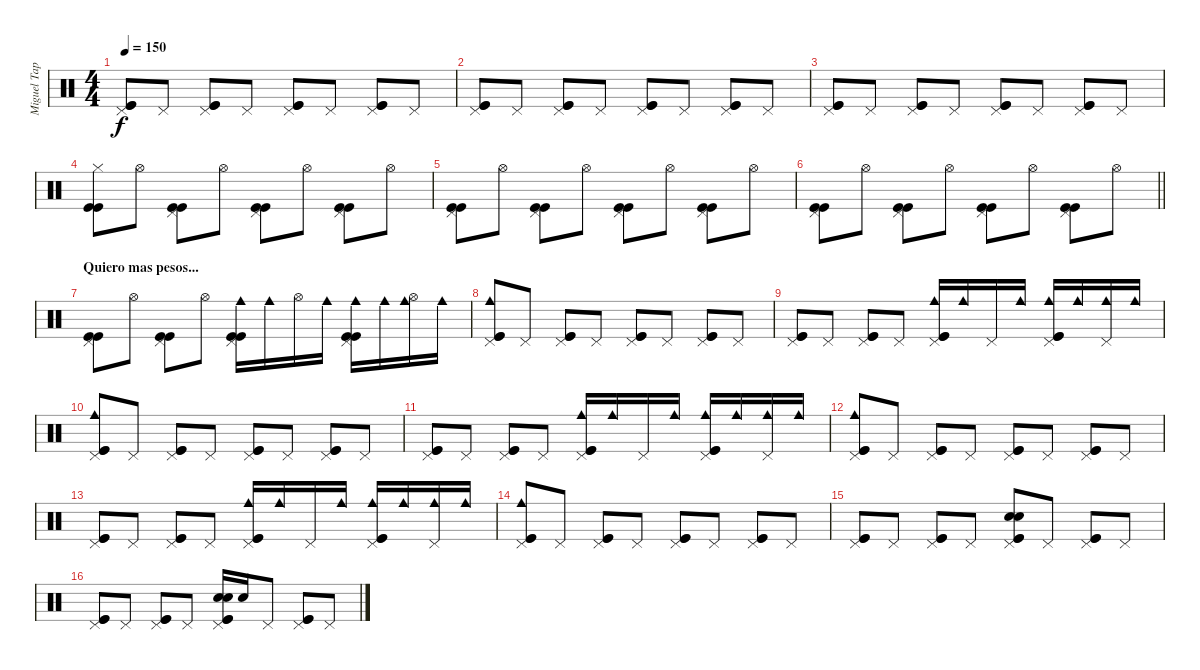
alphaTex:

\track ("Miguel Tapia" "Miguel Tap") {instrument percussion}
\staff {score}
\articulation defaults
\ts (4 4)
\tempo 150
\clef neutral
\ks c
("Pedal Hi-Hat (hit)" "Kick (hit)" "Kick (hit)").8{dy f} "Pedal Hi-Hat (hit)".8 ("Pedal Hi-Hat (hit)" "Kick (hit)" "Kick (hit)").8 "Pedal Hi-Hat (hit)".8 ("Pedal Hi-Hat (hit)" "Kick (hit)" "Kick (hit)").8 "Pedal Hi-Hat (hit)".8 ("Pedal Hi-Hat (hit)" "Kick (hit)" "Kick (hit)").8 "Pedal Hi-Hat (hit)".8 |
("Pedal Hi-Hat (hit)" "Kick (hit)" "Kick (hit)").8 "Pedal Hi-Hat (hit)".8 ("Pedal Hi-Hat (hit)" "Kick (hit)" "Kick (hit)").8 "Pedal Hi-Hat (hit)".8 ("Pedal Hi-Hat (hit)" "Kick (hit)" "Kick (hit)").8 "Pedal Hi-Hat (hit)".8 ("Pedal Hi-Hat (hit)" "Kick (hit)" "Kick (hit)").8 "Pedal Hi-Hat (hit)".8 |
("Pedal Hi-Hat (hit)" "Kick (hit)" "Kick (hit)").8 "Pedal Hi-Hat (hit)".8 ("Pedal Hi-Hat (hit)" "Kick (hit)" "Kick (hit)").8 "Pedal Hi-Hat (hit)".8 ("Pedal Hi-Hat (hit)" "Kick (hit)" "Kick (hit)").8 "Pedal Hi-Hat (hit)".8 ("Pedal Hi-Hat (hit)" "Kick (hit)" "Kick (hit)").8 "Pedal Hi-Hat (hit)".8 |
("Hi-Hat (closed)" "Kick (hit)" "Kick (hit)").8 "Hi-Hat (open)".8 ("Pedal Hi-Hat (hit)" "Kick (hit)" "Kick (hit)").8 "Hi-Hat (open)".8 ("Pedal Hi-Hat (hit)" "Kick (hit)" "Kick (hit)").8 "Hi-Hat (open)".8 ("Pedal Hi-Hat (hit)" "Kick (hit)" "Kick (hit)").8 "Hi-Hat (open)".8 |
("Pedal Hi-Hat (hit)" "Kick (hit)" "Kick (hit)").8 "Hi-Hat (open)".8 ("Pedal Hi-Hat (hit)" "Kick (hit)" "Kick (hit)").8 "Hi-Hat (open)".8 ("Pedal Hi-Hat (hit)" "Kick (hit)" "Kick (hit)").8 "Hi-Hat (open)".8 ("Pedal Hi-Hat (hit)" "Kick (hit)" "Kick (hit)").8 "Hi-Hat (open)".8 |
\barLineRight lightlight
("Pedal Hi-Hat (hit)" "Kick (hit)" "Kick (hit)").8 "Hi-Hat (open)".8 ("Pedal Hi-Hat (hit)" "Kick (hit)" "Kick (hit)").8 "Hi-Hat (open)".8 ("Pedal Hi-Hat (hit)" "Kick (hit)" "Kick (hit)").8 "Hi-Hat (open)".8 ("Pedal Hi-Hat (hit)" "Kick (hit)" "Kick (hit)").8 "Hi-Hat (open)".8 |
\section ("" "Quiero mas pesos...")
("Pedal Hi-Hat (hit)" "Kick (hit)" "Kick (hit)").8 "Hi-Hat (open)".8 ("Pedal Hi-Hat (hit)" "Kick (hit)" "Kick (hit)").8 "Hi-Hat (open)".8 ("Pedal Hi-Hat (hit)" "Cowbell medium (hit)" "Kick (hit)" "Kick (hit)").16 "Cowbell medium (hit)".16 "Hi-Hat (open)".16 "Cowbell medium (hit)".16 ("Pedal Hi-Hat (hit)" "Cowbell medium (hit)" "Kick (hit)" "Kick (hit)").16 "Cowbell medium (hit)".16 ("Hi-Hat (open)" "Cowbell medium (hit)").16 "Cowbell medium (hit)".16 |
("Pedal Hi-Hat (hit)" "Cowbell medium (hit)" "Kick (hit)" "Kick (hit)").8 "Pedal Hi-Hat (hit)".8 ("Pedal Hi-Hat (hit)" "Kick (hit)" "Kick (hit)").8 "Pedal Hi-Hat (hit)".8 ("Pedal Hi-Hat (hit)" "Kick (hit)" "Kick (hit)").8 "Pedal Hi-Hat (hit)".8 ("Pedal Hi-Hat (hit)" "Kick (hit)" "Kick (hit)").8 "Pedal Hi-Hat (hit)".8 |
("Pedal Hi-Hat (hit)" "Kick (hit)" "Kick (hit)").8 "Pedal Hi-Hat (hit)".8 ("Pedal Hi-Hat (hit)" "Kick (hit)" "Kick (hit)").8 "Pedal Hi-Hat (hit)".8 ("Pedal Hi-Hat (hit)" "Cowbell medium (hit)" "Kick (hit)" "Kick (hit)").16 "Cowbell medium (hit)".16 "Pedal Hi-Hat (hit)".16 "Cowbell medium (hit)".16 ("Pedal Hi-Hat (hit)" "Cowbell medium (hit)" "Kick (hit)" "Kick (hit)").16 "Cowbell medium (hit)".16 ("Pedal Hi-Hat (hit)" "Cowbell medium (hit)").16 "Cowbell medium (hit)".16 |
("Pedal Hi-Hat (hit)" "Cowbell medium (hit)" "Kick (hit)" "Kick (hit)").8 "Pedal Hi-Hat (hit)".8 ("Pedal Hi-Hat (hit)" "Kick (hit)" "Kick (hit)").8 "Pedal Hi-Hat (hit)".8 ("Pedal Hi-Hat (hit)" "Kick (hit)" "Kick (hit)").8 "Pedal Hi-Hat (hit)".8 ("Pedal Hi-Hat (hit)" "Kick (hit)" "Kick (hit)").8 "Pedal Hi-Hat (hit)".8 |
("Pedal Hi-Hat (hit)" "Kick (hit)" "Kick (hit)").8 "Pedal Hi-Hat (hit)".8 ("Pedal Hi-Hat (hit)" "Kick (hit)" "Kick (hit)").8 "Pedal Hi-Hat (hit)".8 ("Pedal Hi-Hat (hit)" "Cowbell medium (hit)" "Kick (hit)" "Kick (hit)").16 "Cowbell medium (hit)".16 "Pedal Hi-Hat (hit)".16 "Cowbell medium (hit)".16 ("Pedal Hi-Hat (hit)" "Cowbell medium (hit)" "Kick (hit)" "Kick (hit)").16 "Cowbell medium (hit)".16 ("Pedal Hi-Hat (hit)" "Cowbell medium (hit)").16 "Cowbell medium (hit)".16 |
("Pedal Hi-Hat (hit)" "Cowbell medium (hit)" "Kick (hit)" "Kick (hit)").8 "Pedal Hi-Hat (hit)".8 ("Pedal Hi-Hat (hit)" "Kick (hit)" "Kick (hit)").8 "Pedal Hi-Hat (hit)".8 ("Pedal Hi-Hat (hit)" "Kick (hit)" "Kick (hit)").8 "Pedal Hi-Hat (hit)".8 ("Pedal Hi-Hat (hit)" "Kick (hit)" "Kick (hit)").8 "Pedal Hi-Hat (hit)".8 |
("Pedal Hi-Hat (hit)" "Kick (hit)" "Kick (hit)").8 "Pedal Hi-Hat (hit)".8 ("Pedal Hi-Hat (hit)" "Kick (hit)" "Kick (hit)").8 "Pedal Hi-Hat (hit)".8 ("Pedal Hi-Hat (hit)" "Cowbell medium (hit)" "Kick (hit)" "Kick (hit)").16 "Cowbell medium (hit)".16 "Pedal Hi-Hat (hit)".16 "Cowbell medium (hit)".16 ("Pedal Hi-Hat (hit)" "Cowbell medium (hit)" "Kick (hit)" "Kick (hit)").16 "Cowbell medium (hit)".16 ("Pedal Hi-Hat (hit)" "Cowbell medium (hit)").16 "Cowbell medium (hit)".16 |
("Pedal Hi-Hat (hit)" "Cowbell medium (hit)" "Kick (hit)" "Kick (hit)").8 "Pedal Hi-Hat (hit)".8 ("Pedal Hi-Hat (hit)" "Kick (hit)" "Kick (hit)").8 "Pedal Hi-Hat (hit)".8 ("Pedal Hi-Hat (hit)" "Kick (hit)" "Kick (hit)").8 "Pedal Hi-Hat (hit)".8 ("Pedal Hi-Hat (hit)" "Kick (hit)" "Kick (hit)").8 "Pedal Hi-Hat (hit)".8 |
("Pedal Hi-Hat (hit)" "Kick (hit)" "Kick (hit)").8 "Pedal Hi-Hat (hit)".8 ("Pedal Hi-Hat (hit)" "Kick (hit)" "Kick (hit)").8 "Pedal Hi-Hat (hit)".8 ("Pedal Hi-Hat (hit)" "Kick (hit)" "Kick (hit)" "Snare (hit) 2" "Snare (hit) 2").8 "Pedal Hi-Hat (hit)".8 ("Pedal Hi-Hat (hit)" "Kick (hit)" "Kick (hit)").8 "Pedal Hi-Hat (hit)".8 |
("Pedal Hi-Hat (hit)" "Kick (hit)" "Kick (hit)").8 "Pedal Hi-Hat (hit)".8 ("Pedal Hi-Hat (hit)" "Kick (hit)" "Kick (hit)").8 "Pedal Hi-Hat (hit)".8 ("Pedal Hi-Hat (hit)" "Kick (hit)" "Kick (hit)" "Snare (hit) 2" "Snare (hit) 2").16 "Snare (hit) 2".16 "Pedal Hi-Hat (hit)".8 ("Pedal Hi-Hat (hit)" "Kick (hit)" "Kick (hit)").8 "Pedal Hi-Hat (hit)".8
